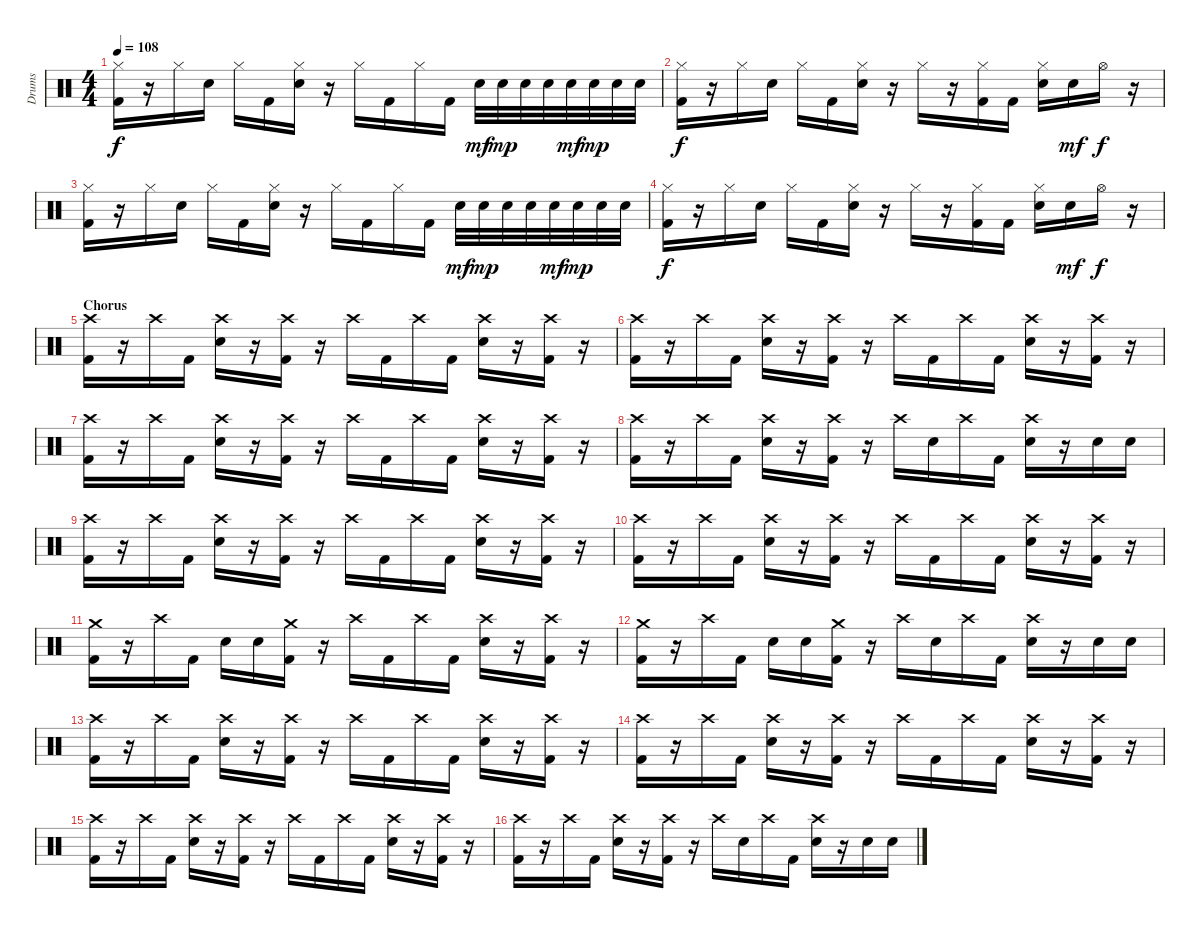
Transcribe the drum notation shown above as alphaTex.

\track ("Drums" "Drums") {instrument percussion}
\staff {score}
\articulation defaults
\ts (4 4)
\tempo 108
\clef neutral
\ks c
("Hi-Hat (closed)" "Kick (hit) 2").16{dy f} r.16 "Hi-Hat (closed)".16 "Electric Snare (hit)".16 "Hi-Hat (closed)".16 "Kick (hit) 2".16 ("Hi-Hat (closed)" "Electric Snare (hit)").16 r.16 "Hi-Hat (closed)".16 "Kick (hit) 2".16 "Hi-Hat (closed)".16 "Kick (hit) 2".16 "Electric Snare (hit)".32{dy mf} "Electric Snare (hit)".32{dy mp} "Electric Snare (hit)".32 "Electric Snare (hit)".32 "Electric Snare (hit)".32{dy mf} "Electric Snare (hit)".32{dy mp} "Electric Snare (hit)".32 "Electric Snare (hit)".32 |
("Hi-Hat (closed)" "Kick (hit) 2").16{dy f} r.16 "Hi-Hat (closed)".16 "Electric Snare (hit)".16 "Hi-Hat (closed)".16 "Kick (hit) 2".16 ("Hi-Hat (closed)" "Electric Snare (hit)").16 r.16 "Hi-Hat (closed)".16 r.16 ("Hi-Hat (closed)" "Kick (hit) 2").16 "Kick (hit) 2".16 ("Hi-Hat (closed)" "Electric Snare (hit)").16 "Electric Snare (hit)".16{dy mf} "Hi-Hat (open)".16{dy f} r.16 |
("Hi-Hat (closed)" "Kick (hit) 2").16 r.16 "Hi-Hat (closed)".16 "Electric Snare (hit)".16 "Hi-Hat (closed)".16 "Kick (hit) 2".16 ("Hi-Hat (closed)" "Electric Snare (hit)").16 r.16 "Hi-Hat (closed)".16 "Kick (hit) 2".16 "Hi-Hat (closed)".16 "Kick (hit) 2".16 "Electric Snare (hit)".32{dy mf} "Electric Snare (hit)".32{dy mp} "Electric Snare (hit)".32 "Electric Snare (hit)".32 "Electric Snare (hit)".32{dy mf} "Electric Snare (hit)".32{dy mp} "Electric Snare (hit)".32 "Electric Snare (hit)".32 |
("Hi-Hat (closed)" "Kick (hit) 2").16{dy f} r.16 "Hi-Hat (closed)".16 "Electric Snare (hit)".16 "Hi-Hat (closed)".16 "Kick (hit) 2".16 ("Hi-Hat (closed)" "Electric Snare (hit)").16 r.16 "Hi-Hat (closed)".16 r.16 ("Hi-Hat (closed)" "Kick (hit) 2").16 "Kick (hit) 2".16 ("Hi-Hat (closed)" "Electric Snare (hit)").16 "Electric Snare (hit)".16{dy mf} "Hi-Hat (open)".16{dy f} r.16 |
\section ("" "Chorus")
("Crash high (hit)" "Kick (hit) 2").16 r.16 "Crash high (hit)".16 "Kick (hit) 2".16 ("Crash high (hit)" "Electric Snare (hit)").16 r.16 ("Crash high (hit)" "Kick (hit) 2").16 r.16 "Crash high (hit)".16 "Kick (hit) 2".16 "Crash high (hit)".16 "Kick (hit) 2".16 ("Crash high (hit)" "Electric Snare (hit)").16 r.16 ("Crash high (hit)" "Kick (hit) 2").16 r.16 |
("Crash high (hit)" "Kick (hit) 2").16 r.16 "Crash high (hit)".16 "Kick (hit) 2".16 ("Crash high (hit)" "Electric Snare (hit)").16 r.16 ("Crash high (hit)" "Kick (hit) 2").16 r.16 "Crash high (hit)".16 "Kick (hit) 2".16 "Crash high (hit)".16 "Kick (hit) 2".16 ("Crash high (hit)" "Electric Snare (hit)").16 r.16 ("Crash high (hit)" "Kick (hit) 2").16 r.16 |
("Crash high (hit)" "Kick (hit) 2").16 r.16 "Crash high (hit)".16 "Kick (hit) 2".16 ("Crash high (hit)" "Electric Snare (hit)").16 r.16 ("Crash high (hit)" "Kick (hit) 2").16 r.16 "Crash high (hit)".16 "Kick (hit) 2".16 "Crash high (hit)".16 "Kick (hit) 2".16 ("Crash high (hit)" "Electric Snare (hit)").16 r.16 ("Crash high (hit)" "Kick (hit) 2").16 r.16 |
("Crash high (hit)" "Kick (hit) 2").16 r.16 "Crash high (hit)".16 "Kick (hit) 2".16 ("Crash high (hit)" "Electric Snare (hit)").16 r.16 ("Crash high (hit)" "Kick (hit) 2").16 r.16 "Crash high (hit)".16 "Electric Snare (hit)".16 "Crash high (hit)".16 "Kick (hit) 2".16 ("Crash high (hit)" "Electric Snare (hit)").16 r.16 "Electric Snare (hit)".16 "Electric Snare (hit)".16 |
("Crash high (hit)" "Kick (hit) 2").16 r.16 "Crash high (hit)".16 "Kick (hit) 2".16 ("Crash high (hit)" "Electric Snare (hit)").16 r.16 ("Crash high (hit)" "Kick (hit) 2").16 r.16 "Crash high (hit)".16 "Kick (hit) 2".16 "Crash high (hit)".16 "Kick (hit) 2".16 ("Crash high (hit)" "Electric Snare (hit)").16 r.16 ("Crash high (hit)" "Kick (hit) 2").16 r.16 |
("Crash high (hit)" "Kick (hit) 2").16 r.16 "Crash high (hit)".16 "Kick (hit) 2".16 ("Crash high (hit)" "Electric Snare (hit)").16 r.16 ("Crash high (hit)" "Kick (hit) 2").16 r.16 "Crash high (hit)".16 "Kick (hit) 2".16 "Crash high (hit)".16 "Kick (hit) 2".16 ("Crash high (hit)" "Electric Snare (hit)").16 r.16 ("Crash high (hit)" "Kick (hit) 2").16 r.16 |
("Crash medium (hit)" "Kick (hit) 2").16 r.16 "Crash high (hit)".16 "Kick (hit) 2".16 "Electric Snare (hit)".16 "Electric Snare (hit)".16 ("Crash medium (hit)" "Kick (hit) 2").16 r.16 "Crash high (hit)".16 "Kick (hit) 2".16 "Crash high (hit)".16 "Kick (hit) 2".16 ("Crash high (hit)" "Electric Snare (hit)").16 r.16 ("Crash high (hit)" "Kick (hit) 2").16 r.16 |
("Crash medium (hit)" "Kick (hit) 2").16 r.16 "Crash high (hit)".16 "Kick (hit) 2".16 "Electric Snare (hit)".16 "Electric Snare (hit)".16 ("Crash medium (hit)" "Kick (hit) 2").16 r.16 "Crash high (hit)".16 "Electric Snare (hit)".16 "Crash high (hit)".16 "Kick (hit) 2".16 ("Crash high (hit)" "Electric Snare (hit)").16 r.16 "Electric Snare (hit)".16 "Electric Snare (hit)".16 |
("Crash high (hit)" "Kick (hit) 2").16 r.16 "Crash high (hit)".16 "Kick (hit) 2".16 ("Crash high (hit)" "Electric Snare (hit)").16 r.16 ("Crash high (hit)" "Kick (hit) 2").16 r.16 "Crash high (hit)".16 "Kick (hit) 2".16 "Crash high (hit)".16 "Kick (hit) 2".16 ("Crash high (hit)" "Electric Snare (hit)").16 r.16 ("Crash high (hit)" "Kick (hit) 2").16 r.16 |
("Crash high (hit)" "Kick (hit) 2").16 r.16 "Crash high (hit)".16 "Kick (hit) 2".16 ("Crash high (hit)" "Electric Snare (hit)").16 r.16 ("Crash high (hit)" "Kick (hit) 2").16 r.16 "Crash high (hit)".16 "Kick (hit) 2".16 "Crash high (hit)".16 "Kick (hit) 2".16 ("Crash high (hit)" "Electric Snare (hit)").16 r.16 ("Crash high (hit)" "Kick (hit) 2").16 r.16 |
("Crash high (hit)" "Kick (hit) 2").16 r.16 "Crash high (hit)".16 "Kick (hit) 2".16 ("Crash high (hit)" "Electric Snare (hit)").16 r.16 ("Crash high (hit)" "Kick (hit) 2").16 r.16 "Crash high (hit)".16 "Kick (hit) 2".16 "Crash high (hit)".16 "Kick (hit) 2".16 ("Crash high (hit)" "Electric Snare (hit)").16 r.16 ("Crash high (hit)" "Kick (hit) 2").16 r.16 |
("Crash high (hit)" "Kick (hit) 2").16 r.16 "Crash high (hit)".16 "Kick (hit) 2".16 ("Crash high (hit)" "Electric Snare (hit)").16 r.16 ("Crash high (hit)" "Kick (hit) 2").16 r.16 "Crash high (hit)".16 "Electric Snare (hit)".16 "Crash high (hit)".16 "Kick (hit) 2".16 ("Crash high (hit)" "Electric Snare (hit)").16 r.16 "Electric Snare (hit)".16 "Electric Snare (hit)".16
